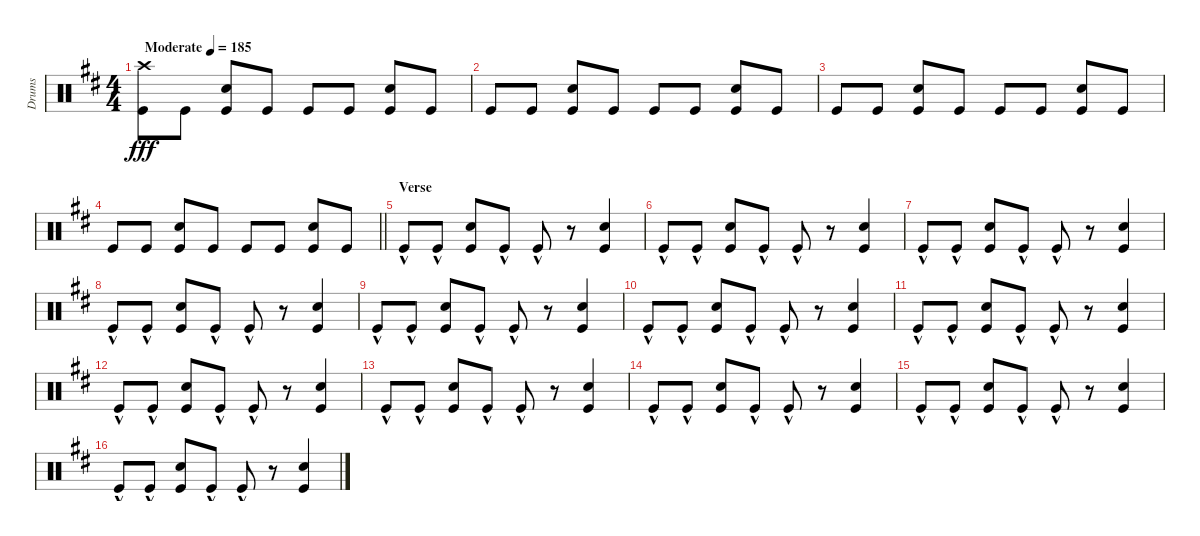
\track ("Drums" "Drums") {instrument percussion}
\staff {score}
\articulation defaults
\ts (4 4)
\tempo (185 "Moderate")
\clef neutral
\ks d
("Crash high (hit)" "Kick (hit)").8{dy fff} "Kick (hit)".8 ("Snare (hit) 2" "Kick (hit)").8 "Kick (hit)".8 "Kick (hit)".8 "Kick (hit)".8 ("Snare (hit) 2" "Kick (hit)").8 "Kick (hit)".8 |
"Kick (hit)".8 "Kick (hit)".8 ("Snare (hit) 2" "Kick (hit)").8 "Kick (hit)".8 "Kick (hit)".8 "Kick (hit)".8 ("Snare (hit) 2" "Kick (hit)").8 "Kick (hit)".8 |
"Kick (hit)".8 "Kick (hit)".8 ("Snare (hit) 2" "Kick (hit)").8 "Kick (hit)".8 "Kick (hit)".8 "Kick (hit)".8 ("Snare (hit) 2" "Kick (hit)").8 "Kick (hit)".8 |
\barLineRight lightlight "Kick (hit)".8 "Kick (hit)".8
("Snare (hit) 2" "Kick (hit)").8 "Kick (hit)".8 "Kick (hit)".8 "Kick (hit)".8 ("Snare (hit) 2" "Kick (hit)").8 "Kick (hit)".8 |
\section ("" "Verse")
"Kick (hit)"{hac}.8 "Kick (hit)"{hac}.8 ("Snare (hit) 2" "Kick (hit)").8 "Kick (hit)"{hac}.8 "Kick (hit)"{hac}.8 r.8 ("Snare (hit) 2" "Kick (hit)").4 |
"Kick (hit)"{hac}.8 "Kick (hit)"{hac}.8 ("Snare (hit) 2" "Kick (hit)").8 "Kick (hit)"{hac}.8 "Kick (hit)"{hac}.8 r.8 ("Snare (hit) 2" "Kick (hit)").4 |
"Kick (hit)"{hac}.8 "Kick (hit)"{hac}.8 ("Snare (hit) 2" "Kick (hit)").8 "Kick (hit)"{hac}.8 "Kick (hit)"{hac}.8 r.8 ("Snare (hit) 2" "Kick (hit)").4 |
"Kick (hit)"{hac}.8 "Kick (hit)"{hac}.8 ("Snare (hit) 2" "Kick (hit)").8 "Kick (hit)"{hac}.8 "Kick (hit)"{hac}.8 r.8 ("Snare (hit) 2" "Kick (hit)").4 |
"Kick (hit)"{hac}.8 "Kick (hit)"{hac}.8 ("Snare (hit) 2" "Kick (hit)").8 "Kick (hit)"{hac}.8 "Kick (hit)"{hac}.8 r.8 ("Snare (hit) 2" "Kick (hit)").4 |
"Kick (hit)"{hac}.8 "Kick (hit)"{hac}.8 ("Snare (hit) 2" "Kick (hit)").8 "Kick (hit)"{hac}.8 "Kick (hit)"{hac}.8 r.8 ("Snare (hit) 2" "Kick (hit)").4 |
"Kick (hit)"{hac}.8 "Kick (hit)"{hac}.8 ("Snare (hit) 2" "Kick (hit)").8 "Kick (hit)"{hac}.8 "Kick (hit)"{hac}.8 r.8 ("Snare (hit) 2" "Kick (hit)").4 |
"Kick (hit)"{hac}.8 "Kick (hit)"{hac}.8 ("Snare (hit) 2" "Kick (hit)").8 "Kick (hit)"{hac}.8 "Kick (hit)"{hac}.8 r.8 ("Snare (hit) 2" "Kick (hit)").4 |
"Kick (hit)"{hac}.8 "Kick (hit)"{hac}.8 ("Snare (hit) 2" "Kick (hit)").8 "Kick (hit)"{hac}.8 "Kick (hit)"{hac}.8 r.8 ("Snare (hit) 2" "Kick (hit)").4 |
"Kick (hit)"{hac}.8 "Kick (hit)"{hac}.8 ("Snare (hit) 2" "Kick (hit)").8 "Kick (hit)"{hac}.8 "Kick (hit)"{hac}.8 r.8 ("Snare (hit) 2" "Kick (hit)").4 |
"Kick (hit)"{hac}.8 "Kick (hit)"{hac}.8 ("Snare (hit) 2" "Kick (hit)").8 "Kick (hit)"{hac}.8 "Kick (hit)"{hac}.8 r.8 ("Snare (hit) 2" "Kick (hit)").4 |
"Kick (hit)"{hac}.8 "Kick (hit)"{hac}.8 ("Snare (hit) 2" "Kick (hit)").8 "Kick (hit)"{hac}.8 "Kick (hit)"{hac}.8 r.8 ("Snare (hit) 2" "Kick (hit)").4
